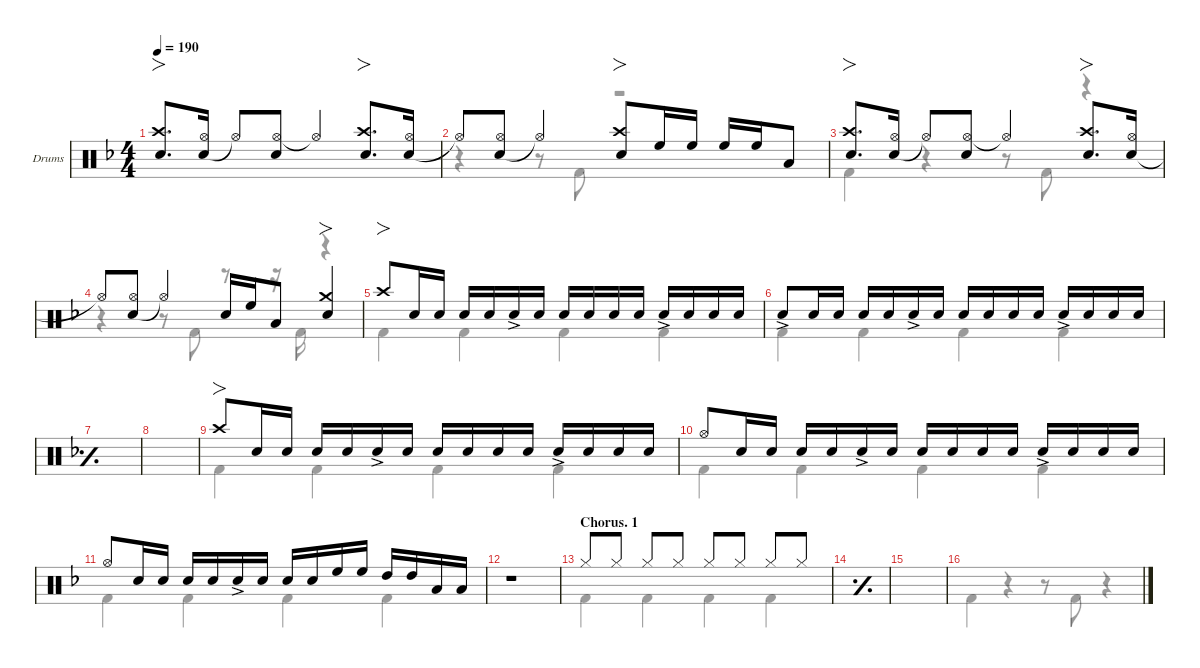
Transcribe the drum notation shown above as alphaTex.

\defaultSystemsLayout 4
\hideDynamics
\bracketExtendMode nobrackets
\firstSystemTrackNameOrientation horizontal
\track ("Drums" "Drums") {defaultSystemsLayout 4 instrument percussion}
\staff {score}
\articulation defaults
\voice
\ts (4 4)
\tempo 190
\clef neutral
\scale
0.267605
\ks dminor
("Snare (hit) 2"{acc forcenatural} "Crash high (hit)"{acc forcenatural}).8{fo d dy f beam Up} ("Snare (hit) 2"{acc forcenatural} "Hi-Hat (open)"{acc forcenatural}).16{beam Up beam split} "Hi-Hat (open)"{t acc forcenatural}.8{beam Up} ("Hi-Hat (open)"{acc forcenatural} "Snare (hit) 2"{acc forcenatural}).8{beam Up} "Hi-Hat (open)"{t acc forcenatural}.4{beam Up} ("Snare (hit) 2"{acc forcenatural} "Crash high (hit)"{acc forcenatural}).8{fo d beam Up} ("Snare (hit) 2"{acc forcenatural} "Hi-Hat (open)"{acc forcenatural}).16{beam Up} |
\scale
0.243474 "Hi-Hat (open)"{t acc forcenatural}.8{beam Up} ("Snare (hit) 2"{acc forcenatural} "Hi-Hat (open)"{acc forcenatural}).8{beam Up} "Hi-Hat (open)"{t acc forcenatural}.4{beam Up} ("Snare (hit) 2"{acc forcenatural} "Crash high (hit)"{acc forcenatural}).8{fo beam Up} "High Floor Tom (hit)"{acc forcenatural}.16{beam Up} "High Floor Tom (hit)"{acc forcenatural}.16{beam Up beam split} "High Floor Tom (hit)"{acc forcenatural}.16{beam Up} "High Floor Tom (hit)"{acc forcenatural}.16{beam Up} "Low Tom (hit)"{acc forcenatural}.8{beam Up} |
\scale
0.244789 ("Snare (hit) 2"{acc forcenatural} "Crash high (hit)"{acc forcenatural}).8{fo d beam Up} ("Snare (hit) 2"{acc forcenatural} "Hi-Hat (open)"{acc forcenatural}).16{beam Up beam split} "Hi-Hat (open)"{t acc forcenatural}.8{beam Up} ("Hi-Hat (open)"{acc forcenatural} "Snare (hit) 2"{acc forcenatural}).8{beam Up} "Hi-Hat (open)"{t acc forcenatural}.4{beam Up} ("Snare (hit) 2"{acc forcenatural} "Crash high (hit)"{acc forcenatural}).8{fo d beam Up} ("Snare (hit) 2"{acc forcenatural} "Hi-Hat (open)"{acc forcenatural}).16{beam Up} |
\scale
0.244132 "Hi-Hat (open)"{t acc forcenatural}.8{beam Up} ("Snare (hit) 2"{acc forcenatural} "Hi-Hat (open)"{acc forcenatural}).8{beam Up} "Hi-Hat (open)"{t acc forcenatural}.4{beam Up} "Snare (hit) 2"{acc forcenatural}.16{beam Up} "High Floor Tom (hit)"{acc forcenatural}.16{beam Up} "Low Tom (hit)"{acc forcenatural}.8{beam Up} ("Snare (hit) 2"{acc forcenatural} "Crash medium (hit)"{acc forcenatural}).4{fo beam Up} |
\scale
0.267605 "Crash high (hit)"{acc forcenatural}.8{fo beam Up} "Snare (hit) 2"{acc forcenatural}.16{dy mf beam Up} "Snare (hit) 2"{acc forcenatural}.16{dy mp beam Up beam split} "Snare (hit) 2"{acc forcenatural}.16{dy f beam Up} "Snare (hit) 2"{acc forcenatural}.16{dy mp beam Up} "Snare (hit) 2"{ac acc forcenatural}.16{dy f beam Up} "Snare (hit) 2"{acc forcenatural}.16{dy mp beam Up} "Snare (hit) 2"{acc forcenatural}.16{dy f beam Up} "Snare (hit) 2"{acc forcenatural}.16{dy mp beam Up} "Snare (hit) 2"{acc forcenatural}.16{dy f beam Up} "Snare (hit) 2"{acc forcenatural}.16{dy mp beam Up beam split} "Snare (hit) 2"{ac acc forcenatural}.16{dy f beam Up} "Snare (hit) 2"{acc forcenatural}.16{dy mp beam Up} "Snare (hit) 2"{acc forcenatural}.16{dy f beam Up} "Snare (hit) 2"{acc forcenatural}.16{dy mp beam Up} |
\scale
0.244132 "Snare (hit) 2"{ac acc forcenatural}.8{dy f beam Up} "Snare (hit) 2"{acc forcenatural}.16{dy mf beam Up} "Snare (hit) 2"{acc forcenatural}.16{dy mp beam Up beam split} "Snare (hit) 2"{acc forcenatural}.16{dy f beam Up} "Snare (hit) 2"{acc forcenatural}.16{dy mp beam Up} "Snare (hit) 2"{ac acc forcenatural}.16{dy f beam Up} "Snare (hit) 2"{acc forcenatural}.16{dy mp beam Up} "Snare (hit) 2"{acc forcenatural}.16{dy f beam Up} "Snare (hit) 2"{acc forcenatural}.16{dy mp beam Up} "Snare (hit) 2"{acc forcenatural}.16{dy f beam Up} "Snare (hit) 2"{acc forcenatural}.16{dy mp beam Up beam split} "Snare (hit) 2"{ac acc forcenatural}.16{dy f beam Up} "Snare (hit) 2"{acc forcenatural}.16{dy mp beam Up} "Snare (hit) 2"{acc forcenatural}.16{dy f beam Up} "Snare (hit) 2"{acc forcenatural}.16{dy mp beam Up} |
\simile simple
\scale
0.244132 |
\scale
0.244132 |
\simile none
\scale
0.267605 "Crash high (hit)"{acc forcenatural}.8{fo dy f beam Up} "Snare (hit) 2"{acc forcenatural}.16{dy mf beam Up} "Snare (hit) 2"{acc forcenatural}.16{dy mp beam Up beam split} "Snare (hit) 2"{acc forcenatural}.16{dy f beam Up} "Snare (hit) 2"{acc forcenatural}.16{dy mp beam Up} "Snare (hit) 2"{ac acc forcenatural}.16{dy f beam Up} "Snare (hit) 2"{acc forcenatural}.16{dy mp beam Up} "Snare (hit) 2"{acc forcenatural}.16{dy f beam Up} "Snare (hit) 2"{acc forcenatural}.16{dy mp beam Up} "Snare (hit) 2"{acc forcenatural}.16{dy f beam Up} "Snare (hit) 2"{acc forcenatural}.16{dy mp beam Up beam split} "Snare (hit) 2"{ac acc forcenatural}.16{dy f beam Up} "Snare (hit) 2"{acc forcenatural}.16{dy mp beam Up} "Snare (hit) 2"{acc forcenatural}.16{dy f beam Up} "Snare (hit) 2"{acc forcenatural}.16{dy mp beam Up} |
\scale
0.243474 "Hi-Hat (open)"{acc forcenatural}.8{dy f beam Up} "Snare (hit) 2"{acc forcenatural}.16{dy mf beam Up} "Snare (hit) 2"{acc forcenatural}.16{dy mp beam Up beam split} "Snare (hit) 2"{acc forcenatural}.16{dy f beam Up} "Snare (hit) 2"{acc forcenatural}.16{dy mp beam Up} "Snare (hit) 2"{ac acc forcenatural}.16{dy f beam Up} "Snare (hit) 2"{acc forcenatural}.16{dy mp beam Up} "Snare (hit) 2"{acc forcenatural}.16{dy f beam Up} "Snare (hit) 2"{acc forcenatural}.16{dy mp beam Up} "Snare (hit) 2"{acc forcenatural}.16{dy f beam Up} "Snare (hit) 2"{acc forcenatural}.16{dy mp beam Up beam split} "Snare (hit) 2"{ac acc forcenatural}.16{dy f beam Up} "Snare (hit) 2"{acc forcenatural}.16{dy mp beam Up} "Snare (hit) 2"{acc forcenatural}.16{dy f beam Up} "Snare (hit) 2"{acc forcenatural}.16{dy mp beam Up} |
\scale
0.244789 "Hi-Hat (open)"{acc forcenatural}.8{dy f beam Up} "Snare (hit) 2"{acc forcenatural}.16{dy mf beam Up} "Snare (hit) 2"{acc forcenatural}.16{dy mp beam Up beam split} "Snare (hit) 2"{acc forcenatural}.16{dy f beam Up} "Snare (hit) 2"{acc forcenatural}.16{dy mp beam Up} "Snare (hit) 2"{ac acc forcenatural}.16{dy f beam Up} "Snare (hit) 2"{acc forcenatural}.16{dy mp beam Up} "Snare (hit) 2"{acc forcenatural}.16{dy f beam Up} "Snare (hit) 2"{acc forcenatural}.16{dy mp beam Up} "High Floor Tom (hit)"{acc forcenatural}.16{dy f beam Up} "High Floor Tom (hit)"{acc forcenatural}.16{beam Up beam split} "High Tom (hit)"{acc forcenatural}.16{beam Up} "High Tom (hit)"{acc forcenatural}.16{beam Up} "Low Tom (hit)"{acc forcenatural}.16{beam Up} "Low Tom (hit)"{acc forcenatural}.16{beam Up} |
\scale
0.244132 r.1{beam Up} |
\section ("" "Chorus. 1")
\scale
0.267605 "Hi-Hat (closed)"{acc forcenatural}.8{beam Up} "Hi-Hat (closed)"{acc forcenatural}.8{dy mf beam Up} "Hi-Hat (closed)"{acc forcenatural}.8{dy f beam Up} "Hi-Hat (closed)"{acc forcenatural}.8{dy mf beam Up} "Hi-Hat (closed)"{acc forcenatural}.8{dy f beam Up} "Hi-Hat (closed)"{acc forcenatural}.8{dy mf beam Up} "Hi-Hat (closed)"{acc forcenatural}.8{dy f beam Up} "Hi-Hat (closed)"{acc forcenatural}.8{dy mf beam Up} |
\simile simple
\scale
0.243474 |
\scale
0.244789 |
\scale
0.244132
\voice
\clef neutral
\ottava regular
\simile none
\scale
0.267605
\ks dminor "Kick (hit) 2"{acc forcenatural}.4{dy f beam Down}
r.4{beam Down} r.8{beam Down} "Kick (hit) 2"{acc forcenatural}.8{beam Down} r.4{beam Down} |
\scale
0.243474 r.4{beam Down} r.8{beam Down} "Kick (hit) 2"{acc forcenatural}.8{beam Down} r.2{beam Down} |
\scale
0.244789 "Kick (hit) 2"{acc forcenatural}.4{beam Down} r.4{beam Down} r.8{beam Down} "Kick (hit) 2"{acc forcenatural}.8{beam Down} r.4{beam Down} |
\scale
0.244132 r.4{beam Down} r.8{beam Down} "Kick (hit) 2"{acc forcenatural}.8{beam Down} r.8{beam Down} r.16{beam Down} "Kick (hit) 2"{acc forcenatural}.16{beam Down} r.4{beam Down} |
\scale
0.267605 "Kick (hit) 2"{acc forcenatural}.4{beam Down} "Kick (hit) 2"{acc forcenatural}.4{beam Down} "Kick (hit) 2"{acc forcenatural}.4{beam Down} "Kick (hit) 2"{acc forcenatural}.4{beam Down} |
\scale
0.244132 "Kick (hit) 2"{acc forcenatural}.4{beam Down} "Kick (hit) 2"{acc forcenatural}.4{beam Down} "Kick (hit) 2"{acc forcenatural}.4{beam Down} "Kick (hit) 2"{acc forcenatural}.4{beam Down} |
\simile simple
\scale
0.244132 |
\scale
0.244132 |
\simile none
\scale
0.267605 "Kick (hit) 2"{acc forcenatural}.4{beam Down} "Kick (hit) 2"{acc forcenatural}.4{beam Down} "Kick (hit) 2"{acc forcenatural}.4{beam Down} "Kick (hit) 2"{acc forcenatural}.4{beam Down} |
\scale
0.243474 "Kick (hit) 2"{acc forcenatural}.4{beam Down} "Kick (hit) 2"{acc forcenatural}.4{beam Down} "Kick (hit) 2"{acc forcenatural}.4{beam Down} "Kick (hit) 2"{acc forcenatural}.4{beam Down} |
\scale
0.244789 "Kick (hit) 2"{acc forcenatural}.4{beam Down} "Kick (hit) 2"{acc forcenatural}.4{beam Down} "Kick (hit) 2"{acc forcenatural}.4{beam Down} "Kick (hit) 2"{acc forcenatural}.4{beam Down} |
\scale
0.244132 r.1{beam Down} |
\scale
0.267605 "Kick (hit) 2"{acc forcenatural}.4{beam Down} "Kick (hit) 2"{acc forcenatural}.4{beam Down} "Kick (hit) 2"{acc forcenatural}.4{beam Down} "Kick (hit) 2"{acc forcenatural}.4{beam Down} |
\simile simple
\scale
0.243474 |
\scale
0.244789 |
\scale
0.244132
